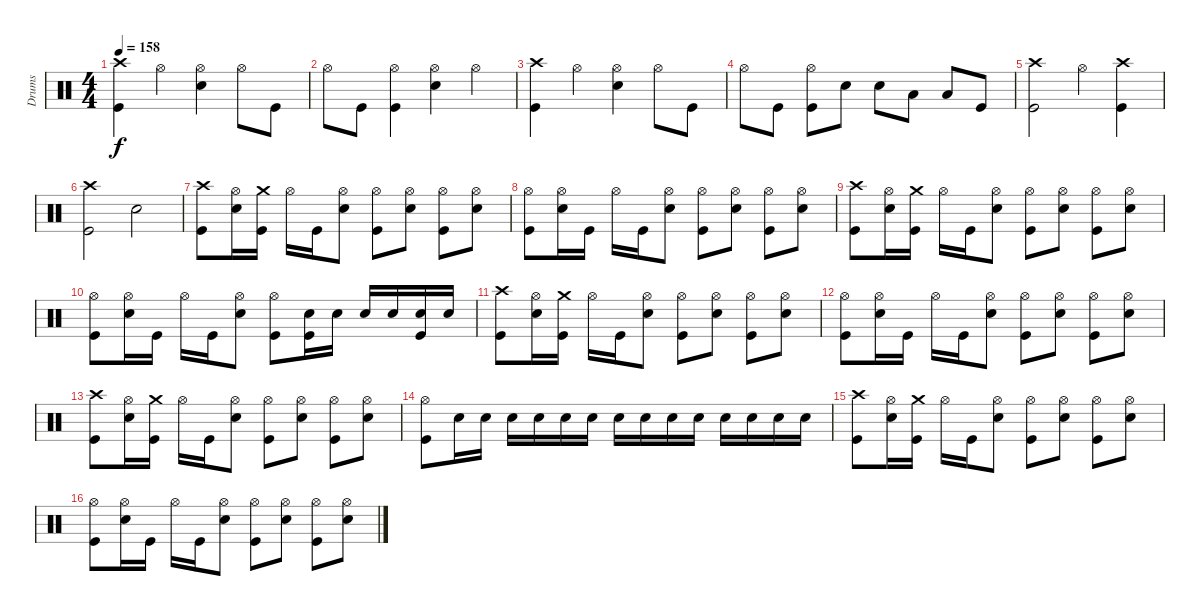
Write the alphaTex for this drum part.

\track ("Drums" "Drums") {instrument percussion}
\staff {score}
\articulation defaults
\ts (4 4)
\tempo 158
\clef neutral
\ks c
("Crash high (hit)" "Kick (hit)").4{dy f} "Hi-Hat (open)".4 ("Hi-Hat (open)" "Snare (hit) 2").4 "Hi-Hat (open)".8 "Kick (hit)".8 |
"Hi-Hat (open)".8 "Kick (hit)".8 ("Hi-Hat (open)" "Kick (hit)").4 ("Hi-Hat (open)" "Snare (hit) 2").4 "Hi-Hat (open)".4 |
("Crash high (hit)" "Kick (hit)").4 "Hi-Hat (open)".4 ("Hi-Hat (open)" "Snare (hit) 2").4 "Hi-Hat (open)".8 "Kick (hit)".8 |
"Hi-Hat (open)".8 "Kick (hit)".8 ("Hi-Hat (open)" "Kick (hit)").8 "Snare (hit) 2".8 "Snare (hit) 2".8 "Low Tom (hit)".8 "Low Floor Tom (hit)".8 "Kick (hit)".8 |
("Crash high (hit)" "Kick (hit)").2 "Hi-Hat (open)".4 ("Crash high (hit)" "Kick (hit)").4 |
("Crash high (hit)" "Kick (hit)").2 "Snare (hit) 2".2 |
("Crash high (hit)" "Kick (hit)").8 ("Hi-Hat (open)" "Snare (hit) 2").16 ("Crash medium (hit)" "Kick (hit)").16 "Hi-Hat (open)".16 "Kick (hit)".16 ("Hi-Hat (open)" "Snare (hit) 2").8 ("Hi-Hat (open)" "Kick (hit)").8 ("Hi-Hat (open)" "Snare (hit) 2").8 ("Hi-Hat (open)" "Kick (hit)").8 ("Hi-Hat (open)" "Snare (hit) 2").8 |
("Hi-Hat (open)" "Kick (hit)").8 ("Hi-Hat (open)" "Snare (hit) 2").16 "Kick (hit)".16 "Hi-Hat (open)".16 "Kick (hit)".16 ("Hi-Hat (open)" "Snare (hit) 2").8 ("Hi-Hat (open)" "Kick (hit)").8 ("Hi-Hat (open)" "Snare (hit) 2").8 ("Hi-Hat (open)" "Kick (hit)").8 ("Hi-Hat (open)" "Snare (hit) 2").8 |
("Crash high (hit)" "Kick (hit)").8 ("Hi-Hat (open)" "Snare (hit) 2").16 ("Crash medium (hit)" "Kick (hit)").16 "Hi-Hat (open)".16 "Kick (hit)".16 ("Hi-Hat (open)" "Snare (hit) 2").8 ("Hi-Hat (open)" "Kick (hit)").8 ("Hi-Hat (open)" "Snare (hit) 2").8 ("Hi-Hat (open)" "Kick (hit)").8 ("Hi-Hat (open)" "Snare (hit) 2").8 |
("Hi-Hat (open)" "Kick (hit)").8 ("Hi-Hat (open)" "Snare (hit) 2").16 "Kick (hit)".16 "Hi-Hat (open)".16 "Kick (hit)".16 ("Hi-Hat (open)" "Snare (hit) 2").8 ("Hi-Hat (open)" "Kick (hit)").8 ("Kick (hit)" "Snare (hit) 2").16 "Snare (hit) 2".16 "Snare (hit) 2".16 "Snare (hit) 2".16 ("Kick (hit)" "Snare (hit) 2").16 "Snare (hit) 2".16 |
("Crash high (hit)" "Kick (hit)").8 ("Hi-Hat (open)" "Snare (hit) 2").16 ("Crash medium (hit)" "Kick (hit)").16 "Hi-Hat (open)".16 "Kick (hit)".16 ("Hi-Hat (open)" "Snare (hit) 2").8 ("Hi-Hat (open)" "Kick (hit)").8 ("Hi-Hat (open)" "Snare (hit) 2").8 ("Hi-Hat (open)" "Kick (hit)").8 ("Hi-Hat (open)" "Snare (hit) 2").8 |
("Hi-Hat (open)" "Kick (hit)").8 ("Hi-Hat (open)" "Snare (hit) 2").16 "Kick (hit)".16 "Hi-Hat (open)".16 "Kick (hit)".16 ("Hi-Hat (open)" "Snare (hit) 2").8 ("Hi-Hat (open)" "Kick (hit)").8 ("Hi-Hat (open)" "Snare (hit) 2").8 ("Hi-Hat (open)" "Kick (hit)").8 ("Hi-Hat (open)" "Snare (hit) 2").8 |
("Crash high (hit)" "Kick (hit)").8 ("Hi-Hat (open)" "Snare (hit) 2").16 ("Crash medium (hit)" "Kick (hit)").16 "Hi-Hat (open)".16 "Kick (hit)".16 ("Hi-Hat (open)" "Snare (hit) 2").8 ("Hi-Hat (open)" "Kick (hit)").8 ("Hi-Hat (open)" "Snare (hit) 2").8 ("Hi-Hat (open)" "Kick (hit)").8 ("Hi-Hat (open)" "Snare (hit) 2").8 |
("Hi-Hat (open)" "Kick (hit)").8 "Snare (hit) 2".16 "Snare (hit) 2".16 "Snare (hit) 2".16 "Snare (hit) 2".16 "Snare (hit) 2".16 "Snare (hit) 2".16 "Snare (hit) 2".16 "Snare (hit) 2".16 "Snare (hit) 2".16 "Snare (hit) 2".16 "Snare (hit) 2".16 "Snare (hit) 2".16 "Snare (hit) 2".16 "Snare (hit) 2".16 |
("Crash high (hit)" "Kick (hit)").8 ("Hi-Hat (open)" "Snare (hit) 2").16 ("Crash medium (hit)" "Kick (hit)").16 "Hi-Hat (open)".16 "Kick (hit)".16 ("Hi-Hat (open)" "Snare (hit) 2").8 ("Hi-Hat (open)" "Kick (hit)").8 ("Hi-Hat (open)" "Snare (hit) 2").8 ("Hi-Hat (open)" "Kick (hit)").8 ("Hi-Hat (open)" "Snare (hit) 2").8 |
("Hi-Hat (open)" "Kick (hit)").8 ("Hi-Hat (open)" "Snare (hit) 2").16 "Kick (hit)".16 "Hi-Hat (open)".16 "Kick (hit)".16 ("Hi-Hat (open)" "Snare (hit) 2").8 ("Hi-Hat (open)" "Kick (hit)").8 ("Hi-Hat (open)" "Snare (hit) 2").8 ("Hi-Hat (open)" "Kick (hit)").8 ("Hi-Hat (open)" "Snare (hit) 2").8
